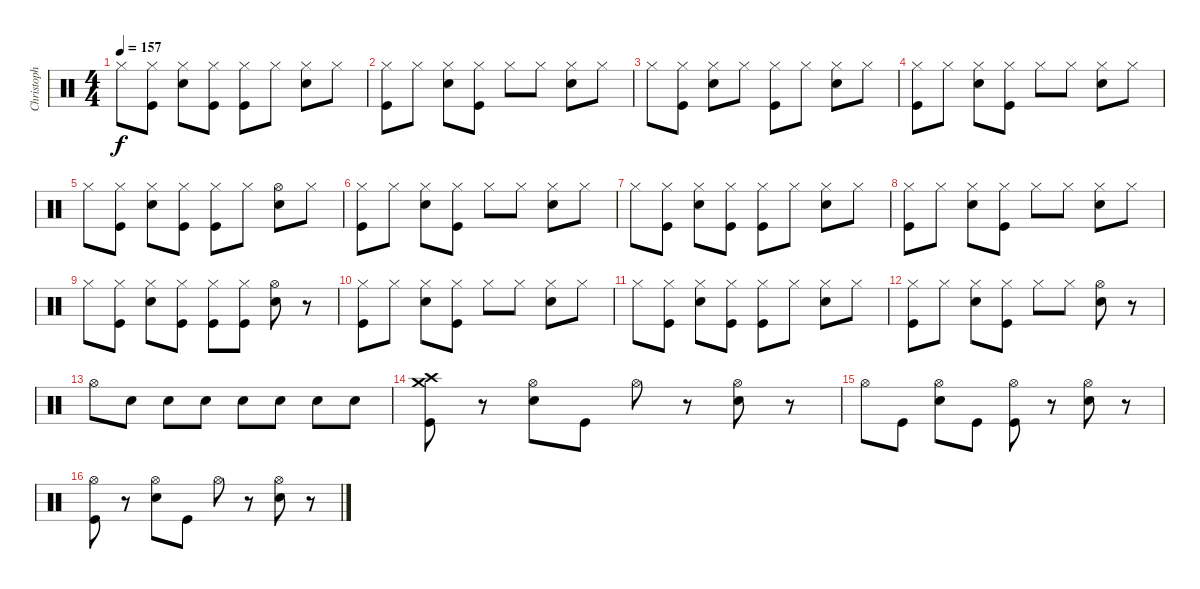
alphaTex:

\track ("Christoph" "Christoph") {instrument percussion}
\staff {score}
\articulation defaults
\ts (4 4)
\tempo 157
\clef neutral
\ks c "Hi-Hat (closed)".8{dy f}
("Hi-Hat (closed)" "Kick (hit)").8 ("Hi-Hat (closed)" "Snare (hit) 2").8 ("Hi-Hat (closed)" "Kick (hit)").8 ("Hi-Hat (closed)" "Kick (hit)").8 "Hi-Hat (closed)".8 ("Hi-Hat (closed)" "Snare (hit) 2").8 "Hi-Hat (closed)".8 |
("Hi-Hat (closed)" "Kick (hit)").8 "Hi-Hat (closed)".8 ("Hi-Hat (closed)" "Snare (hit) 2").8 ("Hi-Hat (closed)" "Kick (hit)").8 "Hi-Hat (closed)".8 "Hi-Hat (closed)".8 ("Hi-Hat (closed)" "Snare (hit) 2").8 "Hi-Hat (closed)".8 |
"Hi-Hat (closed)".8 ("Hi-Hat (closed)" "Kick (hit)").8 ("Hi-Hat (closed)" "Snare (hit) 2").8 "Hi-Hat (closed)".8 ("Hi-Hat (closed)" "Kick (hit)").8 "Hi-Hat (closed)".8 ("Hi-Hat (closed)" "Snare (hit) 2").8 "Hi-Hat (closed)".8 |
("Hi-Hat (closed)" "Kick (hit)").8 "Hi-Hat (closed)".8 ("Hi-Hat (closed)" "Snare (hit) 2").8 ("Hi-Hat (closed)" "Kick (hit)").8 "Hi-Hat (closed)".8 "Hi-Hat (closed)".8 ("Hi-Hat (closed)" "Snare (hit) 2").8 "Hi-Hat (closed)".8 |
"Hi-Hat (closed)".8 ("Hi-Hat (closed)" "Kick (hit)").8 ("Hi-Hat (closed)" "Snare (hit) 2").8 ("Hi-Hat (closed)" "Kick (hit)").8 ("Hi-Hat (closed)" "Kick (hit)").8 "Hi-Hat (closed)".8 ("Hi-Hat (open)" "Snare (hit) 2").8 "Hi-Hat (closed)".8 |
("Hi-Hat (closed)" "Kick (hit)").8 "Hi-Hat (closed)".8 ("Hi-Hat (closed)" "Snare (hit) 2").8 ("Hi-Hat (closed)" "Kick (hit)").8 "Hi-Hat (closed)".8 "Hi-Hat (closed)".8 ("Hi-Hat (closed)" "Snare (hit) 2").8 "Hi-Hat (closed)".8 |
"Hi-Hat (closed)".8 ("Hi-Hat (closed)" "Kick (hit)").8 ("Hi-Hat (closed)" "Snare (hit) 2").8 ("Hi-Hat (closed)" "Kick (hit)").8 ("Hi-Hat (closed)" "Kick (hit)").8 "Hi-Hat (closed)".8 ("Hi-Hat (closed)" "Snare (hit) 2").8 "Hi-Hat (closed)".8 |
("Hi-Hat (closed)" "Kick (hit)").8 "Hi-Hat (closed)".8 ("Hi-Hat (closed)" "Snare (hit) 2").8 ("Hi-Hat (closed)" "Kick (hit)").8 "Hi-Hat (closed)".8 "Hi-Hat (closed)".8 ("Hi-Hat (closed)" "Snare (hit) 2").8 "Hi-Hat (closed)".8 |
"Hi-Hat (closed)".8 ("Hi-Hat (closed)" "Kick (hit)").8 ("Hi-Hat (closed)" "Snare (hit) 2").8 ("Hi-Hat (closed)" "Kick (hit)").8 ("Hi-Hat (closed)" "Kick (hit)").8 ("Hi-Hat (closed)" "Kick (hit)").8 ("Hi-Hat (open)" "Snare (hit) 2").8 r.8 |
("Hi-Hat (closed)" "Kick (hit)").8 "Hi-Hat (closed)".8 ("Hi-Hat (closed)" "Snare (hit) 2").8 ("Hi-Hat (closed)" "Kick (hit)").8 "Hi-Hat (closed)".8 "Hi-Hat (closed)".8 ("Hi-Hat (closed)" "Snare (hit) 2").8 "Hi-Hat (closed)".8 |
"Hi-Hat (closed)".8 ("Hi-Hat (closed)" "Kick (hit)").8 ("Hi-Hat (closed)" "Snare (hit) 2").8 ("Hi-Hat (closed)" "Kick (hit)").8 ("Hi-Hat (closed)" "Kick (hit)").8 "Hi-Hat (closed)".8 ("Hi-Hat (closed)" "Snare (hit) 2").8 "Hi-Hat (closed)".8 |
("Hi-Hat (closed)" "Kick (hit)").8 "Hi-Hat (closed)".8 ("Hi-Hat (closed)" "Snare (hit) 2").8 ("Hi-Hat (closed)" "Kick (hit)").8 "Hi-Hat (closed)".8 "Hi-Hat (closed)".8 ("Hi-Hat (open)" "Snare (hit) 2").8 r.8 |
"Hi-Hat (open)".8 "Snare (hit) 2".8 "Snare (hit) 2".8 "Snare (hit) 2".8 "Snare (hit) 2".8 "Snare (hit) 2".8 "Snare (hit) 2".8 "Snare (hit) 2".8 |
("Crash medium (hit)" "Crash high (hit)" "Kick (hit)").8 r.8 ("Hi-Hat (open)" "Snare (hit) 2").8 "Kick (hit)".8 "Hi-Hat (open)".8 r.8 ("Hi-Hat (open)" "Snare (hit) 2").8 r.8 |
"Hi-Hat (open)".8 "Kick (hit)".8 ("Hi-Hat (open)" "Snare (hit) 2").8 "Kick (hit)".8 ("Hi-Hat (open)" "Kick (hit)").8 r.8 ("Hi-Hat (open)" "Snare (hit) 2").8 r.8 |
("Hi-Hat (open)" "Kick (hit)").8 r.8 ("Hi-Hat (open)" "Snare (hit) 2").8 "Kick (hit)".8 "Hi-Hat (open)".8 r.8 ("Hi-Hat (open)" "Snare (hit) 2").8 r.8
